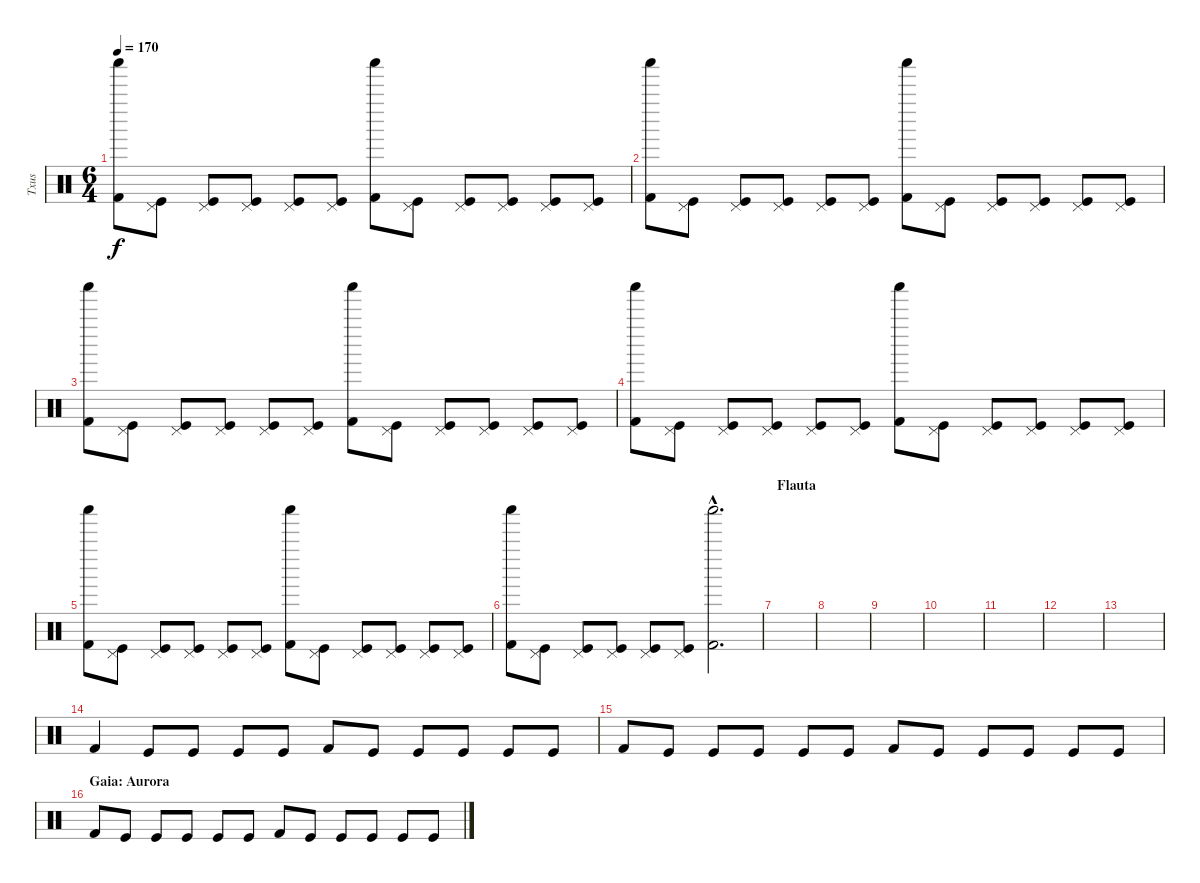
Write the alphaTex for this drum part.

\track ("Txus" "Txus") {instrument percussion}
\staff {score}
\articulation defaults
\ts (6 4)
\tempo 170
\clef neutral
\ks c
("Kick (hit) 2" "Shaker (hit)").8{dy f} ("Kick (hit)" "Pedal Hi-Hat (hit)").8 ("Kick (hit)" "Pedal Hi-Hat (hit)").8 ("Kick (hit)" "Pedal Hi-Hat (hit)").8 ("Kick (hit)" "Pedal Hi-Hat (hit)").8 ("Kick (hit)" "Pedal Hi-Hat (hit)").8 ("Kick (hit) 2" "Shaker (hit)").8 ("Kick (hit)" "Pedal Hi-Hat (hit)").8 ("Kick (hit)" "Pedal Hi-Hat (hit)").8 ("Kick (hit)" "Pedal Hi-Hat (hit)").8 ("Kick (hit)" "Pedal Hi-Hat (hit)").8 ("Kick (hit)" "Pedal Hi-Hat (hit)").8 |
("Kick (hit) 2" "Shaker (hit)").8 ("Kick (hit)" "Pedal Hi-Hat (hit)").8 ("Kick (hit)" "Pedal Hi-Hat (hit)").8 ("Kick (hit)" "Pedal Hi-Hat (hit)").8 ("Kick (hit)" "Pedal Hi-Hat (hit)").8 ("Kick (hit)" "Pedal Hi-Hat (hit)").8 ("Kick (hit) 2" "Shaker (hit)").8 ("Kick (hit)" "Pedal Hi-Hat (hit)").8 ("Kick (hit)" "Pedal Hi-Hat (hit)").8 ("Kick (hit)" "Pedal Hi-Hat (hit)").8 ("Kick (hit)" "Pedal Hi-Hat (hit)").8 ("Kick (hit)" "Pedal Hi-Hat (hit)").8 |
("Kick (hit) 2" "Shaker (hit)").8 ("Kick (hit)" "Pedal Hi-Hat (hit)").8 ("Kick (hit)" "Pedal Hi-Hat (hit)").8 ("Kick (hit)" "Pedal Hi-Hat (hit)").8 ("Kick (hit)" "Pedal Hi-Hat (hit)").8 ("Kick (hit)" "Pedal Hi-Hat (hit)").8 ("Kick (hit) 2" "Shaker (hit)").8 ("Kick (hit)" "Pedal Hi-Hat (hit)").8 ("Kick (hit)" "Pedal Hi-Hat (hit)").8 ("Kick (hit)" "Pedal Hi-Hat (hit)").8 ("Kick (hit)" "Pedal Hi-Hat (hit)").8 ("Kick (hit)" "Pedal Hi-Hat (hit)").8 |
("Kick (hit) 2" "Shaker (hit)").8 ("Kick (hit)" "Pedal Hi-Hat (hit)").8 ("Kick (hit)" "Pedal Hi-Hat (hit)").8 ("Kick (hit)" "Pedal Hi-Hat (hit)").8 ("Kick (hit)" "Pedal Hi-Hat (hit)").8 ("Kick (hit)" "Pedal Hi-Hat (hit)").8 ("Kick (hit) 2" "Shaker (hit)").8 ("Kick (hit)" "Pedal Hi-Hat (hit)").8 ("Kick (hit)" "Pedal Hi-Hat (hit)").8 ("Kick (hit)" "Pedal Hi-Hat (hit)").8 ("Kick (hit)" "Pedal Hi-Hat (hit)").8 ("Kick (hit)" "Pedal Hi-Hat (hit)").8 |
("Kick (hit) 2" "Shaker (hit)").8 ("Kick (hit)" "Pedal Hi-Hat (hit)").8 ("Kick (hit)" "Pedal Hi-Hat (hit)").8 ("Kick (hit)" "Pedal Hi-Hat (hit)").8 ("Kick (hit)" "Pedal Hi-Hat (hit)").8 ("Kick (hit)" "Pedal Hi-Hat (hit)").8 ("Kick (hit) 2" "Shaker (hit)").8 ("Kick (hit)" "Pedal Hi-Hat (hit)").8 ("Kick (hit)" "Pedal Hi-Hat (hit)").8 ("Kick (hit)" "Pedal Hi-Hat (hit)").8 ("Kick (hit)" "Pedal Hi-Hat (hit)").8 ("Kick (hit)" "Pedal Hi-Hat (hit)").8 |
("Kick (hit) 2" "Shaker (hit)").8 ("Kick (hit)" "Pedal Hi-Hat (hit)").8 ("Kick (hit)" "Pedal Hi-Hat (hit)").8 ("Kick (hit)" "Pedal Hi-Hat (hit)").8 ("Kick (hit)" "Pedal Hi-Hat (hit)").8 ("Kick (hit)" "Pedal Hi-Hat (hit)").8 ("Kick (hit) 2"{hac} "Shaker (hit)"{hac}).2{d} |
\section ("" "Flauta")
|
|
|
|
|
|
|
"Kick (hit) 2".4 "Kick (hit)".8 "Kick (hit)".8 "Kick (hit)".8 "Kick (hit)".8 "Kick (hit) 2".8 "Kick (hit)".8 "Kick (hit)".8 "Kick (hit)".8 "Kick (hit)".8 "Kick (hit)".8 |
"Kick (hit) 2".8 "Kick (hit)".8 "Kick (hit)".8 "Kick (hit)".8 "Kick (hit)".8 "Kick (hit)".8 "Kick (hit) 2".8 "Kick (hit)".8 "Kick (hit)".8 "Kick (hit)".8 "Kick (hit)".8 "Kick (hit)".8 |
\section ("" "Gaia: Aurora")
"Kick (hit) 2".8 "Kick (hit)".8 "Kick (hit)".8 "Kick (hit)".8 "Kick (hit)".8 "Kick (hit)".8 "Kick (hit) 2".8 "Kick (hit)".8 "Kick (hit)".8 "Kick (hit)".8 "Kick (hit)".8 "Kick (hit)".8
